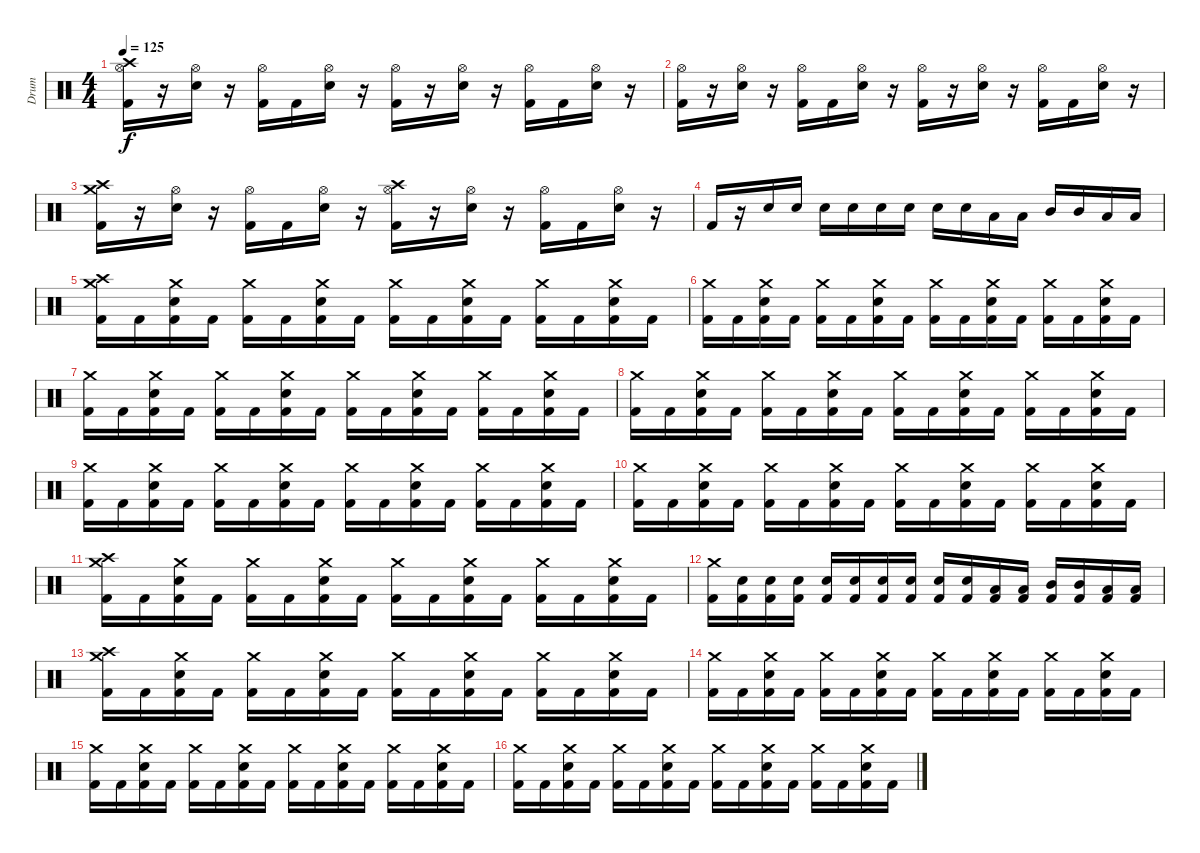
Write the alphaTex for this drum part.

\track ("Drum" "Drum") {instrument percussion}
\staff {score}
\articulation defaults
\ts (4 4)
\tempo 125
\clef neutral
\ks c
("Crash high (hit)" "Hi-Hat (open)" "Kick (hit) 2").16{dy f} r.16 ("Hi-Hat (open)" "Electric Snare (hit)").16 r.16 ("Hi-Hat (open)" "Kick (hit) 2").16 "Kick (hit) 2".16 ("Hi-Hat (open)" "Electric Snare (hit)").16 r.16 ("Hi-Hat (open)" "Kick (hit) 2").16 r.16 ("Hi-Hat (open)" "Electric Snare (hit)").16 r.16 ("Hi-Hat (open)" "Kick (hit) 2").16 "Kick (hit) 2".16 ("Hi-Hat (open)" "Electric Snare (hit)").16 r.16 |
("Hi-Hat (open)" "Kick (hit) 2").16 r.16 ("Hi-Hat (open)" "Electric Snare (hit)").16 r.16 ("Hi-Hat (open)" "Kick (hit) 2").16 "Kick (hit) 2".16 ("Hi-Hat (open)" "Electric Snare (hit)").16 r.16 ("Hi-Hat (open)" "Kick (hit) 2").16 r.16 ("Hi-Hat (open)" "Electric Snare (hit)").16 r.16 ("Hi-Hat (open)" "Kick (hit) 2").16 "Kick (hit) 2".16 ("Hi-Hat (open)" "Electric Snare (hit)").16 r.16 |
("Crash high (hit)" "Crash medium (hit)" "Kick (hit) 2").16 r.16 ("Hi-Hat (open)" "Electric Snare (hit)").16 r.16 ("Hi-Hat (open)" "Kick (hit) 2").16 "Kick (hit) 2".16 ("Hi-Hat (open)" "Electric Snare (hit)").16 r.16 ("Crash high (hit)" "Hi-Hat (open)" "Kick (hit) 2").16 r.16 ("Hi-Hat (open)" "Electric Snare (hit)").16 r.16 ("Hi-Hat (open)" "Kick (hit) 2").16 "Kick (hit) 2".16 ("Hi-Hat (open)" "Electric Snare (hit)").16 r.16 |
"Kick (hit) 2".16 r.16 "Electric Snare (hit)".16 "Electric Snare (hit)".16 "Electric Snare (hit)".16 "Electric Snare (hit)".16 "Electric Snare (hit)".16 "Electric Snare (hit)".16 "Electric Snare (hit)".16 "Electric Snare (hit)".16 "Low Tom (hit)".16 "Low Tom (hit)".16 "Mid Tom (hit)".16 "Mid Tom (hit)".16 "Low Floor Tom (hit)".16 "Low Floor Tom (hit)".16 |
("Crash high (hit)" "Crash medium (hit)" "Kick (hit) 2").16 "Kick (hit) 2".16 ("Crash medium (hit)" "Kick (hit) 2" "Electric Snare (hit)").16 "Kick (hit) 2".16 ("Crash medium (hit)" "Kick (hit) 2").16 "Kick (hit) 2".16 ("Crash medium (hit)" "Kick (hit) 2" "Electric Snare (hit)").16 "Kick (hit) 2".16 ("Crash medium (hit)" "Kick (hit) 2").16 "Kick (hit) 2".16 ("Crash medium (hit)" "Kick (hit) 2" "Electric Snare (hit)").16 "Kick (hit) 2".16 ("Crash medium (hit)" "Kick (hit) 2").16 "Kick (hit) 2".16 ("Crash medium (hit)" "Kick (hit) 2" "Electric Snare (hit)").16 "Kick (hit) 2".16 |
("Crash medium (hit)" "Kick (hit) 2").16 "Kick (hit) 2".16 ("Crash medium (hit)" "Kick (hit) 2" "Electric Snare (hit)").16 "Kick (hit) 2".16 ("Crash medium (hit)" "Kick (hit) 2").16 "Kick (hit) 2".16 ("Crash medium (hit)" "Kick (hit) 2" "Electric Snare (hit)").16 "Kick (hit) 2".16 ("Crash medium (hit)" "Kick (hit) 2").16 "Kick (hit) 2".16 ("Crash medium (hit)" "Kick (hit) 2" "Electric Snare (hit)").16 "Kick (hit) 2".16 ("Crash medium (hit)" "Kick (hit) 2").16 "Kick (hit) 2".16 ("Crash medium (hit)" "Kick (hit) 2" "Electric Snare (hit)").16 "Kick (hit) 2".16 |
("Crash medium (hit)" "Kick (hit) 2").16 "Kick (hit) 2".16 ("Crash medium (hit)" "Kick (hit) 2" "Electric Snare (hit)").16 "Kick (hit) 2".16 ("Crash medium (hit)" "Kick (hit) 2").16 "Kick (hit) 2".16 ("Crash medium (hit)" "Kick (hit) 2" "Electric Snare (hit)").16 "Kick (hit) 2".16 ("Crash medium (hit)" "Kick (hit) 2").16 "Kick (hit) 2".16 ("Crash medium (hit)" "Kick (hit) 2" "Electric Snare (hit)").16 "Kick (hit) 2".16 ("Crash medium (hit)" "Kick (hit) 2").16 "Kick (hit) 2".16 ("Crash medium (hit)" "Kick (hit) 2" "Electric Snare (hit)").16 "Kick (hit) 2".16 |
("Crash medium (hit)" "Kick (hit) 2").16 "Kick (hit) 2".16 ("Crash medium (hit)" "Kick (hit) 2" "Electric Snare (hit)").16 "Kick (hit) 2".16 ("Crash medium (hit)" "Kick (hit) 2").16 "Kick (hit) 2".16 ("Crash medium (hit)" "Kick (hit) 2" "Electric Snare (hit)").16 "Kick (hit) 2".16 ("Crash medium (hit)" "Kick (hit) 2").16 "Kick (hit) 2".16 ("Crash medium (hit)" "Kick (hit) 2" "Electric Snare (hit)").16 "Kick (hit) 2".16 ("Crash medium (hit)" "Kick (hit) 2").16 "Kick (hit) 2".16 ("Crash medium (hit)" "Kick (hit) 2" "Electric Snare (hit)").16 "Kick (hit) 2".16 |
("Crash medium (hit)" "Kick (hit) 2").16 "Kick (hit) 2".16 ("Crash medium (hit)" "Kick (hit) 2" "Electric Snare (hit)").16 "Kick (hit) 2".16 ("Crash medium (hit)" "Kick (hit) 2").16 "Kick (hit) 2".16 ("Crash medium (hit)" "Kick (hit) 2" "Electric Snare (hit)").16 "Kick (hit) 2".16 ("Crash medium (hit)" "Kick (hit) 2").16 "Kick (hit) 2".16 ("Crash medium (hit)" "Kick (hit) 2" "Electric Snare (hit)").16 "Kick (hit) 2".16 ("Crash medium (hit)" "Kick (hit) 2").16 "Kick (hit) 2".16 ("Crash medium (hit)" "Kick (hit) 2" "Electric Snare (hit)").16 "Kick (hit) 2".16 |
("Crash medium (hit)" "Kick (hit) 2").16 "Kick (hit) 2".16 ("Crash medium (hit)" "Kick (hit) 2" "Electric Snare (hit)").16 "Kick (hit) 2".16 ("Crash medium (hit)" "Kick (hit) 2").16 "Kick (hit) 2".16 ("Crash medium (hit)" "Kick (hit) 2" "Electric Snare (hit)").16 "Kick (hit) 2".16 ("Crash medium (hit)" "Kick (hit) 2").16 "Kick (hit) 2".16 ("Crash medium (hit)" "Kick (hit) 2" "Electric Snare (hit)").16 "Kick (hit) 2".16 ("Crash medium (hit)" "Kick (hit) 2").16 "Kick (hit) 2".16 ("Crash medium (hit)" "Kick (hit) 2" "Electric Snare (hit)").16 "Kick (hit) 2".16 |
("Crash high (hit)" "Crash medium (hit)" "Kick (hit) 2").16 "Kick (hit) 2".16 ("Crash medium (hit)" "Kick (hit) 2" "Electric Snare (hit)").16 "Kick (hit) 2".16 ("Crash medium (hit)" "Kick (hit) 2").16 "Kick (hit) 2".16 ("Crash medium (hit)" "Kick (hit) 2" "Electric Snare (hit)").16 "Kick (hit) 2".16 ("Crash medium (hit)" "Kick (hit) 2").16 "Kick (hit) 2".16 ("Crash medium (hit)" "Kick (hit) 2" "Electric Snare (hit)").16 "Kick (hit) 2".16 ("Crash medium (hit)" "Kick (hit) 2").16 "Kick (hit) 2".16 ("Crash medium (hit)" "Kick (hit) 2" "Electric Snare (hit)").16 "Kick (hit) 2".16 |
("Crash medium (hit)" "Kick (hit) 2").16 ("Kick (hit) 2" "Electric Snare (hit)").16 ("Kick (hit) 2" "Electric Snare (hit)").16 ("Kick (hit) 2" "Electric Snare (hit)").16 ("Kick (hit) 2" "Electric Snare (hit)").16 ("Kick (hit) 2" "Electric Snare (hit)").16 ("Kick (hit) 2" "Electric Snare (hit)").16 ("Kick (hit) 2" "Electric Snare (hit)").16 ("Kick (hit) 2" "Electric Snare (hit)").16 ("Kick (hit) 2" "Electric Snare (hit)").16 ("Kick (hit) 2" "Low Tom (hit)").16 ("Kick (hit) 2" "Low Tom (hit)").16 ("Kick (hit) 2" "Mid Tom (hit)").16 ("Kick (hit) 2" "Mid Tom (hit)").16 ("Kick (hit) 2" "Low Floor Tom (hit)").16 ("Kick (hit) 2" "Low Floor Tom (hit)").16 |
("Crash high (hit)" "Crash medium (hit)" "Kick (hit) 2").16 "Kick (hit) 2".16 ("Crash medium (hit)" "Kick (hit) 2" "Electric Snare (hit)").16 "Kick (hit) 2".16 ("Crash medium (hit)" "Kick (hit) 2").16 "Kick (hit) 2".16 ("Crash medium (hit)" "Kick (hit) 2" "Electric Snare (hit)").16 "Kick (hit) 2".16 ("Crash medium (hit)" "Kick (hit) 2").16 "Kick (hit) 2".16 ("Crash medium (hit)" "Kick (hit) 2" "Electric Snare (hit)").16 "Kick (hit) 2".16 ("Crash medium (hit)" "Kick (hit) 2").16 "Kick (hit) 2".16 ("Crash medium (hit)" "Kick (hit) 2" "Electric Snare (hit)").16 "Kick (hit) 2".16 |
("Crash medium (hit)" "Kick (hit) 2").16 "Kick (hit) 2".16 ("Crash medium (hit)" "Kick (hit) 2" "Electric Snare (hit)").16 "Kick (hit) 2".16 ("Crash medium (hit)" "Kick (hit) 2").16 "Kick (hit) 2".16 ("Crash medium (hit)" "Kick (hit) 2" "Electric Snare (hit)").16 "Kick (hit) 2".16 ("Crash medium (hit)" "Kick (hit) 2").16 "Kick (hit) 2".16 ("Crash medium (hit)" "Kick (hit) 2" "Electric Snare (hit)").16 "Kick (hit) 2".16 ("Crash medium (hit)" "Kick (hit) 2").16 "Kick (hit) 2".16 ("Crash medium (hit)" "Kick (hit) 2" "Electric Snare (hit)").16 "Kick (hit) 2".16 |
("Crash medium (hit)" "Kick (hit) 2").16 "Kick (hit) 2".16 ("Crash medium (hit)" "Kick (hit) 2" "Electric Snare (hit)").16 "Kick (hit) 2".16 ("Crash medium (hit)" "Kick (hit) 2").16 "Kick (hit) 2".16 ("Crash medium (hit)" "Kick (hit) 2" "Electric Snare (hit)").16 "Kick (hit) 2".16 ("Crash medium (hit)" "Kick (hit) 2").16 "Kick (hit) 2".16 ("Crash medium (hit)" "Kick (hit) 2" "Electric Snare (hit)").16 "Kick (hit) 2".16 ("Crash medium (hit)" "Kick (hit) 2").16 "Kick (hit) 2".16 ("Crash medium (hit)" "Kick (hit) 2" "Electric Snare (hit)").16 "Kick (hit) 2".16 |
("Crash medium (hit)" "Kick (hit) 2").16 "Kick (hit) 2".16 ("Crash medium (hit)" "Kick (hit) 2" "Electric Snare (hit)").16 "Kick (hit) 2".16 ("Crash medium (hit)" "Kick (hit) 2").16 "Kick (hit) 2".16 ("Crash medium (hit)" "Kick (hit) 2" "Electric Snare (hit)").16 "Kick (hit) 2".16 ("Crash medium (hit)" "Kick (hit) 2").16 "Kick (hit) 2".16 ("Crash medium (hit)" "Kick (hit) 2" "Electric Snare (hit)").16 "Kick (hit) 2".16 ("Crash medium (hit)" "Kick (hit) 2").16 "Kick (hit) 2".16 ("Crash medium (hit)" "Kick (hit) 2" "Electric Snare (hit)").16 "Kick (hit) 2".16
